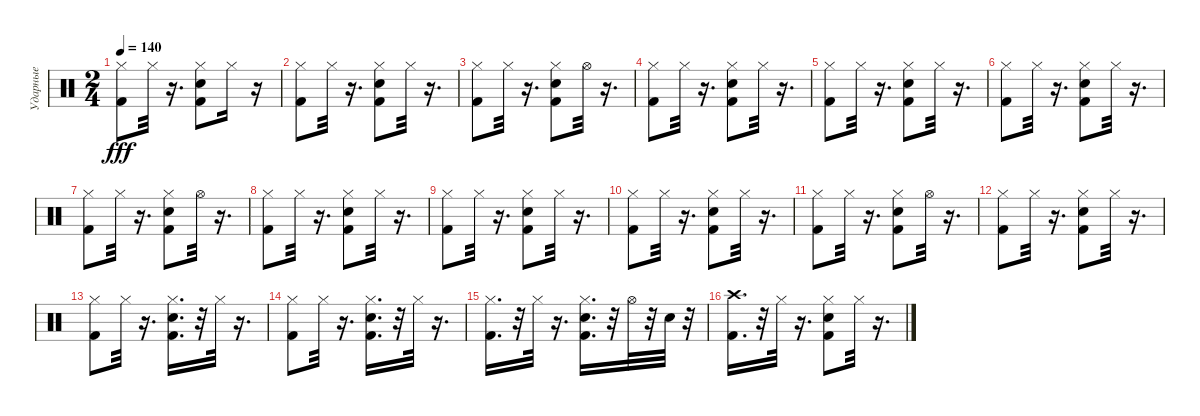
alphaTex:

\track ("Ударные" "Ударные") {instrument percussion}
\staff {score}
\articulation defaults
\ts (2 4)
\tempo 140
\clef neutral
\ks c
("Kick (hit) 2" "Hi-Hat (closed)").8{dy fff} "Hi-Hat (closed)".32 r.16{d} ("Snare (hit) 2" "Kick (hit) 2" "Hi-Hat (closed)").8 "Hi-Hat (closed)".16 r.16 |
("Kick (hit) 2" "Hi-Hat (closed)").8 "Hi-Hat (closed)".32 r.16{d} ("Kick (hit) 2" "Hi-Hat (closed)" "Snare (hit) 2").8 "Hi-Hat (closed)".32 r.16{d} |
("Kick (hit) 2" "Hi-Hat (closed)").8 "Hi-Hat (closed)".32 r.16{d} ("Kick (hit) 2" "Snare (hit) 2" "Hi-Hat (closed)").8 "Hi-Hat (open)".32 r.16{d} |
("Kick (hit) 2" "Hi-Hat (closed)").8 "Hi-Hat (closed)".32 r.16{d} ("Snare (hit) 2" "Kick (hit) 2" "Hi-Hat (closed)").8 "Hi-Hat (closed)".32 r.16{d} |
("Kick (hit) 2" "Hi-Hat (closed)").8 "Hi-Hat (closed)".32 r.16{d} ("Snare (hit) 2" "Kick (hit) 2" "Hi-Hat (closed)").8 "Hi-Hat (closed)".32 r.16{d} |
("Kick (hit) 2" "Hi-Hat (closed)").8 "Hi-Hat (closed)".32 r.16{d} ("Hi-Hat (closed)" "Snare (hit) 2" "Kick (hit) 2").8 "Hi-Hat (closed)".32 r.16{d} |
("Kick (hit) 2" "Hi-Hat (closed)").8 "Hi-Hat (closed)".32 r.16{d} ("Hi-Hat (closed)" "Snare (hit) 2" "Kick (hit) 2").8 "Hi-Hat (open)".32 r.16{d} |
("Kick (hit) 2" "Hi-Hat (closed)").8 "Hi-Hat (closed)".32 r.16{d} ("Snare (hit) 2" "Kick (hit) 2" "Hi-Hat (closed)").8 "Hi-Hat (closed)".32 r.16{d} |
("Kick (hit) 2" "Hi-Hat (closed)").8 "Hi-Hat (closed)".32 r.16{d} ("Snare (hit) 2" "Kick (hit) 2" "Hi-Hat (closed)").8 "Hi-Hat (closed)".32 r.16{d} |
("Kick (hit) 2" "Hi-Hat (closed)").8 "Hi-Hat (closed)".32 r.16{d} ("Kick (hit) 2" "Hi-Hat (closed)" "Snare (hit) 2").8 "Hi-Hat (closed)".32 r.16{d} |
("Kick (hit) 2" "Hi-Hat (closed)").8 "Hi-Hat (closed)".32 r.16{d} ("Kick (hit) 2" "Hi-Hat (closed)" "Snare (hit) 2").8 "Hi-Hat (open)".32 r.16{d} |
("Kick (hit) 2" "Hi-Hat (closed)").8 "Hi-Hat (closed)".32 r.16{d} ("Snare (hit) 2" "Kick (hit) 2" "Hi-Hat (closed)").8 "Hi-Hat (closed)".32 r.16{d} |
("Kick (hit) 2" "Hi-Hat (closed)").8 "Hi-Hat (closed)".32 r.16{d} ("Hi-Hat (closed)" "Snare (hit) 2" "Kick (hit) 2").16{d} r.32 "Hi-Hat (closed)".32 r.16{d} |
("Kick (hit) 2" "Hi-Hat (closed)").8 "Hi-Hat (closed)".32 r.16{d} ("Snare (hit) 2" "Kick (hit) 2" "Hi-Hat (closed)").16{d} r.32 "Hi-Hat (closed)".32 r.16{d} |
("Kick (hit) 2" "Hi-Hat (closed)").16{d} r.32 "Hi-Hat (closed)".32 r.16{d} ("Snare (hit) 2" "Kick (hit) 2" "Hi-Hat (closed)").16{d} r.32 "Hi-Hat (open)".32 r.32 "Snare (hit) 2".32 r.32 |
("Kick (hit) 2" "Crash high (hit)").16{d} r.32 "Hi-Hat (closed)".32 r.16{d} ("Kick (hit) 2" "Snare (hit) 2" "Hi-Hat (closed)").8 "Hi-Hat (closed)".32 r.16{d}
